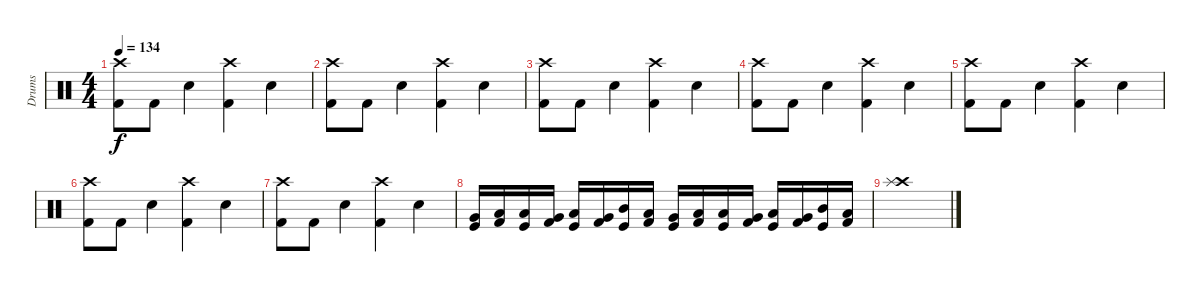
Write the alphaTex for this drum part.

\track ("Drums" "Drums") {instrument percussion}
\staff {score}
\articulation defaults
\ts (4 4)
\tempo 134
\clef neutral
\ks c
("Crash high (hit)" "Kick (hit) 2").8{dy f} "Kick (hit) 2".8 "Electric Snare (hit)".4 ("Kick (hit) 2" "Crash high (hit)").4 "Electric Snare (hit)".4 |
("Kick (hit) 2" "Crash high (hit)").8 "Kick (hit) 2".8 "Electric Snare (hit)".4 ("Kick (hit) 2" "Crash high (hit)").4 "Electric Snare (hit)".4 |
("Crash high (hit)" "Kick (hit) 2").8 "Kick (hit) 2".8 "Electric Snare (hit)".4 ("Kick (hit) 2" "Crash high (hit)").4 "Electric Snare (hit)".4 |
("Kick (hit) 2" "Crash high (hit)").8 "Kick (hit) 2".8 "Electric Snare (hit)".4 ("Kick (hit) 2" "Crash high (hit)").4 "Electric Snare (hit)".4 |
("Crash high (hit)" "Kick (hit) 2").8 "Kick (hit) 2".8 "Electric Snare (hit)".4 ("Kick (hit) 2" "Crash high (hit)").4 "Electric Snare (hit)".4 |
("Kick (hit) 2" "Crash high (hit)").8 "Kick (hit) 2".8 "Electric Snare (hit)".4 ("Kick (hit) 2" "Crash high (hit)").4 "Electric Snare (hit)".4 |
("Crash high (hit)" "Kick (hit) 2").8 "Kick (hit) 2".8 "Electric Snare (hit)".4 ("Kick (hit) 2" "Crash high (hit)").4 "Electric Snare (hit)".4 |
("Kick (hit)" "Very Low Tom (hit)").16 ("Kick (hit) 2" "Low Floor Tom (hit)").16 ("Kick (hit)" "Low Tom (hit)").16 ("Kick (hit) 2" "Very Low Tom (hit)").16 ("Kick (hit)" "Low Tom (hit)").16 ("Kick (hit) 2" "Very Low Tom (hit)").16 ("Kick (hit)" "Mid Tom (hit)").16 ("Kick (hit) 2" "Low Tom (hit)").16 ("Very Low Tom (hit)" "Kick (hit)").16 ("Kick (hit) 2" "Low Floor Tom (hit)").16 ("Kick (hit)" "Low Tom (hit)").16 ("Kick (hit) 2" "Very Low Tom (hit)").16 ("Kick (hit)" "Low Tom (hit)").16 ("Kick (hit) 2" "Very Low Tom (hit)").16 ("Kick (hit)" "Mid Tom (hit)").16 ("Kick (hit) 2" "Low Tom (hit)").16 |
("Crash high (hit)" "Splash (hit)").1
